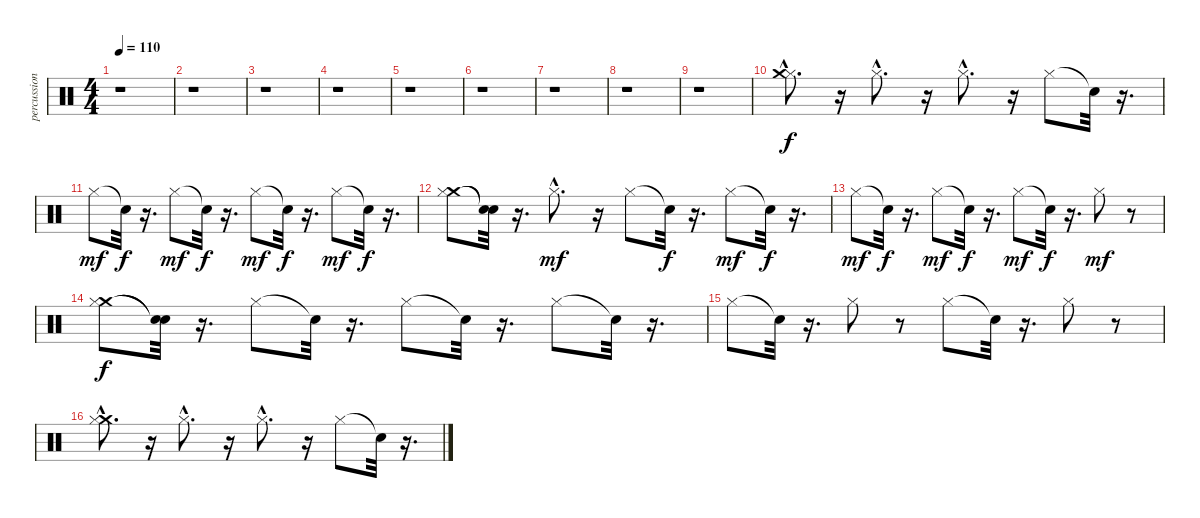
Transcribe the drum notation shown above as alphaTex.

\track ("percussions 2" "percussion") {instrument percussion}
\staff {score}
\articulation defaults
\ts (4 4)
\tempo 110
\clef neutral
\ks c
r.1{dy f} |
r.1 |
r.1 |
r.1 |
r.1 |
r.1 |
r.1 |
r.1 |
r.1 |
("Hi-Hat (closed)"{hac} "Crash medium (hit)"{hac}).8{d} r.16 "Hi-Hat (closed)"{hac}.8{d} r.16 "Hi-Hat (closed)"{hac}.8{d} r.16 "Hi-Hat (closed)".8 "Snare (hit)"{t}.32 r.16{d} |
"Hi-Hat (closed)".8{dy mf} "Snare (hit)"{t}.32{dy f} r.16{d} "Hi-Hat (closed)".8{dy mf} "Snare (hit)"{t}.32{dy f} r.16{d} "Hi-Hat (closed)".8{dy mf} "Snare (hit)"{t}.32{dy f} r.16{d} "Hi-Hat (closed)".8{dy mf} "Snare (hit)"{t}.32{dy f} r.16{d} |
("Crash medium (hit)" "Hi-Hat (closed)").8 ("Snare (hit)"{t} "Snare (hit)"{t}).32 r.16{d} "Hi-Hat (closed)"{hac}.8{d dy mf} r.16 "Hi-Hat (closed)".8 "Snare (hit)"{t}.32{dy f} r.16{d} "Hi-Hat (closed)".8{dy mf} "Snare (hit)"{t}.32{dy f} r.16{d} |
"Hi-Hat (closed)".8{dy mf} "Snare (hit)"{t}.32{dy f} r.16{d} "Hi-Hat (closed)".8{dy mf} "Snare (hit)"{t}.32{dy f} r.16{d} "Hi-Hat (closed)".8{dy mf} "Snare (hit)"{t}.32{dy f} r.16{d} "Hi-Hat (closed)".8{dy mf} r.8 |
("Crash medium (hit)" "Hi-Hat (closed)").8{dy f} ("Snare (hit)"{t} "Snare (hit)"{t}).32 r.16{d} "Hi-Hat (closed)".8 "Snare (hit)"{t}.32 r.16{d} "Hi-Hat (closed)".8 "Snare (hit)"{t}.32 r.16{d} "Hi-Hat (closed)".8 "Snare (hit)"{t}.32 r.16{d} |
"Hi-Hat (closed)".8 "Snare (hit)"{t}.32 r.16{d} "Hi-Hat (closed)".8 r.8 "Hi-Hat (closed)".8 "Snare (hit)"{t}.32 r.16{d} "Hi-Hat (closed)".8 r.8 |
("Crash medium (hit)"{hac} "Hi-Hat (closed)"{hac}).8{d} r.16 "Hi-Hat (closed)"{hac}.8{d} r.16 "Hi-Hat (closed)"{hac}.8{d} r.16 "Hi-Hat (closed)".8 "Snare (hit)"{t}.32 r.16{d}
